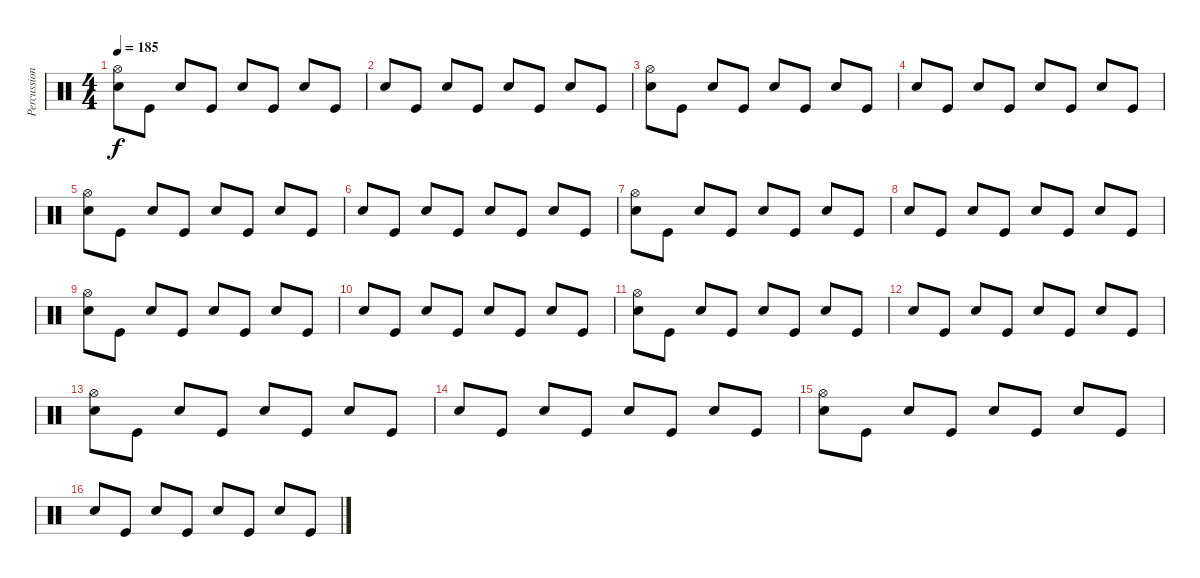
\track ("Percussion" "Percussion") {instrument percussion}
\staff {score}
\articulation defaults
\ts (4 4)
\tempo 185
\clef neutral
\ks c
("Hi-Hat (open)" "Electric Snare (hit)").8{dy f} "Kick (hit)".8 "Electric Snare (hit)".8 "Kick (hit)".8 "Electric Snare (hit)".8 "Kick (hit)".8 "Electric Snare (hit)".8 "Kick (hit)".8 |
"Electric Snare (hit)".8 "Kick (hit)".8 "Electric Snare (hit)".8 "Kick (hit)".8 "Electric Snare (hit)".8 "Kick (hit)".8 "Electric Snare (hit)".8 "Kick (hit)".8 |
("Hi-Hat (open)" "Electric Snare (hit)").8 "Kick (hit)".8 "Electric Snare (hit)".8 "Kick (hit)".8 "Electric Snare (hit)".8 "Kick (hit)".8 "Electric Snare (hit)".8 "Kick (hit)".8 |
"Electric Snare (hit)".8 "Kick (hit)".8 "Electric Snare (hit)".8 "Kick (hit)".8 "Electric Snare (hit)".8 "Kick (hit)".8 "Electric Snare (hit)".8 "Kick (hit)".8 |
("Hi-Hat (open)" "Electric Snare (hit)").8 "Kick (hit)".8 "Electric Snare (hit)".8 "Kick (hit)".8 "Electric Snare (hit)".8 "Kick (hit)".8 "Electric Snare (hit)".8 "Kick (hit)".8 |
"Electric Snare (hit)".8 "Kick (hit)".8 "Electric Snare (hit)".8 "Kick (hit)".8 "Electric Snare (hit)".8 "Kick (hit)".8 "Electric Snare (hit)".8 "Kick (hit)".8 |
("Hi-Hat (open)" "Electric Snare (hit)").8 "Kick (hit)".8 "Electric Snare (hit)".8 "Kick (hit)".8 "Electric Snare (hit)".8 "Kick (hit)".8 "Electric Snare (hit)".8 "Kick (hit)".8 |
"Electric Snare (hit)".8 "Kick (hit)".8 "Electric Snare (hit)".8 "Kick (hit)".8 "Electric Snare (hit)".8 "Kick (hit)".8 "Electric Snare (hit)".8 "Kick (hit)".8 |
("Hi-Hat (open)" "Electric Snare (hit)").8 "Kick (hit)".8 "Electric Snare (hit)".8 "Kick (hit)".8 "Electric Snare (hit)".8 "Kick (hit)".8 "Electric Snare (hit)".8 "Kick (hit)".8 |
"Electric Snare (hit)".8 "Kick (hit)".8 "Electric Snare (hit)".8 "Kick (hit)".8 "Electric Snare (hit)".8 "Kick (hit)".8 "Electric Snare (hit)".8 "Kick (hit)".8 |
("Hi-Hat (open)" "Electric Snare (hit)").8 "Kick (hit)".8 "Electric Snare (hit)".8 "Kick (hit)".8 "Electric Snare (hit)".8 "Kick (hit)".8 "Electric Snare (hit)".8 "Kick (hit)".8 |
"Electric Snare (hit)".8 "Kick (hit)".8 "Electric Snare (hit)".8 "Kick (hit)".8 "Electric Snare (hit)".8 "Kick (hit)".8 "Electric Snare (hit)".8 "Kick (hit)".8 |
("Hi-Hat (open)" "Electric Snare (hit)").8 "Kick (hit)".8 "Electric Snare (hit)".8 "Kick (hit)".8 "Electric Snare (hit)".8 "Kick (hit)".8 "Electric Snare (hit)".8 "Kick (hit)".8 |
"Electric Snare (hit)".8 "Kick (hit)".8 "Electric Snare (hit)".8 "Kick (hit)".8 "Electric Snare (hit)".8 "Kick (hit)".8 "Electric Snare (hit)".8 "Kick (hit)".8 |
("Hi-Hat (open)" "Electric Snare (hit)").8 "Kick (hit)".8 "Electric Snare (hit)".8 "Kick (hit)".8 "Electric Snare (hit)".8 "Kick (hit)".8 "Electric Snare (hit)".8 "Kick (hit)".8 |
"Electric Snare (hit)".8 "Kick (hit)".8 "Electric Snare (hit)".8 "Kick (hit)".8 "Electric Snare (hit)".8 "Kick (hit)".8 "Electric Snare (hit)".8 "Kick (hit)".8
